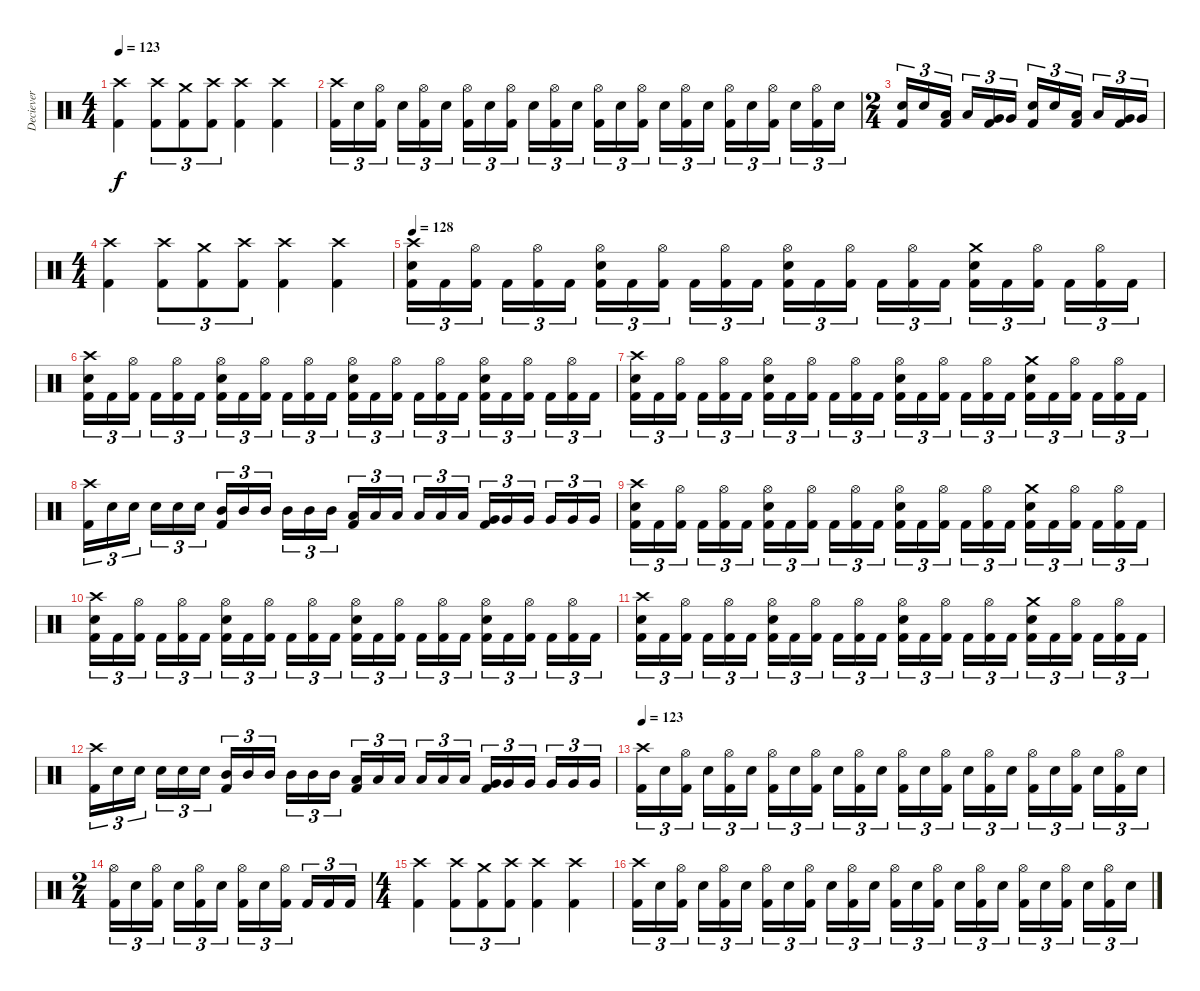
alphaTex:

\track ("Deciever" "Deciever") {instrument percussion}
\staff {score}
\articulation defaults
\ts (4 4)
\tempo 123
\clef neutral
\ks c
("Crash high (hit)" "Kick (hit) 2").4{dy f} ("Crash high (hit)" "Kick (hit) 2").8{tu (3 2)} ("Crash medium (hit)" "Kick (hit) 2").8{tu (3 2)} ("Crash high (hit)" "Kick (hit) 2").8{tu (3 2)} ("Crash high (hit)" "Kick (hit) 2").4 ("Crash high (hit)" "Kick (hit) 2").4 |
("Crash high (hit)" "Kick (hit) 2").16{tu (3 2)} "Electric Snare (hit)".16{tu (3 2)} ("Hi-Hat (open)" "Kick (hit) 2").16{tu (3 2) beam splitsecondary} "Electric Snare (hit)".16{tu (3 2)} ("Hi-Hat (open)" "Kick (hit) 2").16{tu (3 2)} "Electric Snare (hit)".16{tu (3 2)} ("Hi-Hat (open)" "Kick (hit) 2").16{tu (3 2)} "Electric Snare (hit)".16{tu (3 2)} ("Hi-Hat (open)" "Kick (hit) 2").16{tu (3 2) beam splitsecondary} "Electric Snare (hit)".16{tu (3 2)} ("Hi-Hat (open)" "Kick (hit) 2").16{tu (3 2)} "Electric Snare (hit)".16{tu (3 2)} ("Hi-Hat (open)" "Kick (hit) 2").16{tu (3 2)} "Electric Snare (hit)".16{tu (3 2)} ("Hi-Hat (open)" "Kick (hit) 2").16{tu (3 2) beam splitsecondary} "Electric Snare (hit)".16{tu (3 2)} ("Hi-Hat (open)" "Kick (hit) 2").16{tu (3 2)} "Electric Snare (hit)".16{tu (3 2)} ("Hi-Hat (open)" "Kick (hit) 2").16{tu (3 2)} "Electric Snare (hit)".16{tu (3 2)} ("Hi-Hat (open)" "Kick (hit) 2").16{tu (3 2) beam splitsecondary} "Electric Snare (hit)".16{tu (3 2)} ("Hi-Hat (open)" "Kick (hit) 2").16{tu (3 2)} "Electric Snare (hit)".16{tu (3 2)} |
\ts (2 4)
("Electric Snare (hit)" "Kick (hit) 2").16{tu (3 2)} "Electric Snare (hit)".16{tu (3 2)} ("Low Tom (hit)" "Kick (hit) 2").16{tu (3 2) beam splitsecondary} "Low Tom (hit)".16{tu (3 2)} ("Very Low Tom (hit)" "Kick (hit) 2").16{tu (3 2)} "Very Low Tom (hit)".16{tu (3 2)} ("Electric Snare (hit)" "Kick (hit) 2").16{tu (3 2)} "Electric Snare (hit)".16{tu (3 2)} ("Low Tom (hit)" "Kick (hit) 2").16{tu (3 2) beam splitsecondary} "Low Tom (hit)".16{tu (3 2)} ("Very Low Tom (hit)" "Kick (hit) 2").16{tu (3 2)} "Very Low Tom (hit)".16{tu (3 2)} |
\ts (4 4)
("Crash high (hit)" "Kick (hit) 2").4 ("Crash high (hit)" "Kick (hit) 2").8{tu (3 2)} ("Crash medium (hit)" "Kick (hit) 2").8{tu (3 2)} ("Crash high (hit)" "Kick (hit) 2").8{tu (3 2)} ("Crash high (hit)" "Kick (hit) 2").4 ("Crash high (hit)" "Kick (hit) 2").4 |
\tempo 128
("Crash high (hit)" "Electric Snare (hit)" "Kick (hit) 2").16{tu (3 2)} "Kick (hit) 2".16{tu (3 2)} ("Hi-Hat (open)" "Kick (hit) 2").16{tu (3 2) beam splitsecondary} "Kick (hit) 2".16{tu (3 2)} ("Hi-Hat (open)" "Kick (hit) 2").16{tu (3 2)} "Kick (hit) 2".16{tu (3 2)} ("Hi-Hat (open)" "Electric Snare (hit)" "Kick (hit) 2").16{tu (3 2)} "Kick (hit) 2".16{tu (3 2)} ("Hi-Hat (open)" "Kick (hit) 2").16{tu (3 2) beam splitsecondary} "Kick (hit) 2".16{tu (3 2)} ("Hi-Hat (open)" "Kick (hit) 2").16{tu (3 2)} "Kick (hit) 2".16{tu (3 2)} ("Hi-Hat (open)" "Electric Snare (hit)" "Kick (hit) 2").16{tu (3 2)} "Kick (hit) 2".16{tu (3 2)} ("Hi-Hat (open)" "Kick (hit) 2").16{tu (3 2) beam splitsecondary} "Kick (hit) 2".16{tu (3 2)} ("Hi-Hat (open)" "Kick (hit) 2").16{tu (3 2)} "Kick (hit) 2".16{tu (3 2)} ("Crash medium (hit)" "Electric Snare (hit)" "Kick (hit) 2").16{tu (3 2)} "Kick (hit) 2".16{tu (3 2)} ("Hi-Hat (open)" "Kick (hit) 2").16{tu (3 2) beam splitsecondary} "Kick (hit) 2".16{tu (3 2)} ("Hi-Hat (open)" "Kick (hit) 2").16{tu (3 2)} "Kick (hit) 2".16{tu (3 2)} |
("Crash high (hit)" "Electric Snare (hit)" "Kick (hit) 2").16{tu (3 2)} "Kick (hit) 2".16{tu (3 2)} ("Hi-Hat (open)" "Kick (hit) 2").16{tu (3 2) beam splitsecondary} "Kick (hit) 2".16{tu (3 2)} ("Hi-Hat (open)" "Kick (hit) 2").16{tu (3 2)} "Kick (hit) 2".16{tu (3 2)} ("Hi-Hat (open)" "Electric Snare (hit)" "Kick (hit) 2").16{tu (3 2)} "Kick (hit) 2".16{tu (3 2)} ("Hi-Hat (open)" "Kick (hit) 2").16{tu (3 2) beam splitsecondary} "Kick (hit) 2".16{tu (3 2)} ("Hi-Hat (open)" "Kick (hit) 2").16{tu (3 2)} "Kick (hit) 2".16{tu (3 2)} ("Hi-Hat (open)" "Electric Snare (hit)" "Kick (hit) 2").16{tu (3 2)} "Kick (hit) 2".16{tu (3 2)} ("Hi-Hat (open)" "Kick (hit) 2").16{tu (3 2) beam splitsecondary} "Kick (hit) 2".16{tu (3 2)} ("Hi-Hat (open)" "Kick (hit) 2").16{tu (3 2)} "Kick (hit) 2".16{tu (3 2)} ("Hi-Hat (open)" "Electric Snare (hit)" "Kick (hit) 2").16{tu (3 2)} "Kick (hit) 2".16{tu (3 2)} ("Hi-Hat (open)" "Kick (hit) 2").16{tu (3 2) beam splitsecondary} "Kick (hit) 2".16{tu (3 2)} ("Hi-Hat (open)" "Kick (hit) 2").16{tu (3 2)} "Kick (hit) 2".16{tu (3 2)} |
("Crash high (hit)" "Electric Snare (hit)" "Kick (hit) 2").16{tu (3 2)} "Kick (hit) 2".16{tu (3 2)} ("Hi-Hat (open)" "Kick (hit) 2").16{tu (3 2) beam splitsecondary} "Kick (hit) 2".16{tu (3 2)} ("Hi-Hat (open)" "Kick (hit) 2").16{tu (3 2)} "Kick (hit) 2".16{tu (3 2)} ("Hi-Hat (open)" "Electric Snare (hit)" "Kick (hit) 2").16{tu (3 2)} "Kick (hit) 2".16{tu (3 2)} ("Hi-Hat (open)" "Kick (hit) 2").16{tu (3 2) beam splitsecondary} "Kick (hit) 2".16{tu (3 2)} ("Hi-Hat (open)" "Kick (hit) 2").16{tu (3 2)} "Kick (hit) 2".16{tu (3 2)} ("Hi-Hat (open)" "Electric Snare (hit)" "Kick (hit) 2").16{tu (3 2)} "Kick (hit) 2".16{tu (3 2)} ("Hi-Hat (open)" "Kick (hit) 2").16{tu (3 2) beam splitsecondary} "Kick (hit) 2".16{tu (3 2)} ("Hi-Hat (open)" "Kick (hit) 2").16{tu (3 2)} "Kick (hit) 2".16{tu (3 2)} ("Crash medium (hit)" "Electric Snare (hit)" "Kick (hit) 2").16{tu (3 2)} "Kick (hit) 2".16{tu (3 2)} ("Hi-Hat (open)" "Kick (hit) 2").16{tu (3 2) beam splitsecondary} "Kick (hit) 2".16{tu (3 2)} ("Hi-Hat (open)" "Kick (hit) 2").16{tu (3 2)} "Kick (hit) 2".16{tu (3 2)} |
("Crash high (hit)" "Kick (hit) 2").16{tu (3 2)} "Electric Snare (hit)".16{tu (3 2)} "Electric Snare (hit)".16{tu (3 2) beam splitsecondary} "Electric Snare (hit)".16{tu (3 2)} "Electric Snare (hit)".16{tu (3 2)} "Electric Snare (hit)".16{tu (3 2)} ("Mid Tom (hit)" "Kick (hit) 2").16{tu (3 2)} "Mid Tom (hit)".16{tu (3 2)} "Mid Tom (hit)".16{tu (3 2) beam splitsecondary} "Mid Tom (hit)".16{tu (3 2)} "Mid Tom (hit)".16{tu (3 2)} "Mid Tom (hit)".16{tu (3 2)} ("Low Tom (hit)" "Kick (hit) 2").16{tu (3 2)} "Low Tom (hit)".16{tu (3 2)} "Low Tom (hit)".16{tu (3 2) beam splitsecondary} "Low Tom (hit)".16{tu (3 2)} "Low Tom (hit)".16{tu (3 2)} "Low Tom (hit)".16{tu (3 2)} ("Very Low Tom (hit)" "Kick (hit) 2").16{tu (3 2)} "Very Low Tom (hit)".16{tu (3 2)} "Very Low Tom (hit)".16{tu (3 2) beam splitsecondary} "Very Low Tom (hit)".16{tu (3 2)} "Very Low Tom (hit)".16{tu (3 2)} "Very Low Tom (hit)".16{tu (3 2)} |
("Crash high (hit)" "Electric Snare (hit)" "Kick (hit) 2").16{tu (3 2)} "Kick (hit) 2".16{tu (3 2)} ("Hi-Hat (open)" "Kick (hit) 2").16{tu (3 2) beam splitsecondary} "Kick (hit) 2".16{tu (3 2)} ("Hi-Hat (open)" "Kick (hit) 2").16{tu (3 2)} "Kick (hit) 2".16{tu (3 2)} ("Hi-Hat (open)" "Electric Snare (hit)" "Kick (hit) 2").16{tu (3 2)} "Kick (hit) 2".16{tu (3 2)} ("Hi-Hat (open)" "Kick (hit) 2").16{tu (3 2) beam splitsecondary} "Kick (hit) 2".16{tu (3 2)} ("Hi-Hat (open)" "Kick (hit) 2").16{tu (3 2)} "Kick (hit) 2".16{tu (3 2)} ("Hi-Hat (open)" "Electric Snare (hit)" "Kick (hit) 2").16{tu (3 2)} "Kick (hit) 2".16{tu (3 2)} ("Hi-Hat (open)" "Kick (hit) 2").16{tu (3 2) beam splitsecondary} "Kick (hit) 2".16{tu (3 2)} ("Hi-Hat (open)" "Kick (hit) 2").16{tu (3 2)} "Kick (hit) 2".16{tu (3 2)} ("Crash medium (hit)" "Electric Snare (hit)" "Kick (hit) 2").16{tu (3 2)} "Kick (hit) 2".16{tu (3 2)} ("Hi-Hat (open)" "Kick (hit) 2").16{tu (3 2) beam splitsecondary} "Kick (hit) 2".16{tu (3 2)} ("Hi-Hat (open)" "Kick (hit) 2").16{tu (3 2)} "Kick (hit) 2".16{tu (3 2)} |
("Crash high (hit)" "Electric Snare (hit)" "Kick (hit) 2").16{tu (3 2)} "Kick (hit) 2".16{tu (3 2)} ("Hi-Hat (open)" "Kick (hit) 2").16{tu (3 2) beam splitsecondary} "Kick (hit) 2".16{tu (3 2)} ("Hi-Hat (open)" "Kick (hit) 2").16{tu (3 2)} "Kick (hit) 2".16{tu (3 2)} ("Hi-Hat (open)" "Electric Snare (hit)" "Kick (hit) 2").16{tu (3 2)} "Kick (hit) 2".16{tu (3 2)} ("Hi-Hat (open)" "Kick (hit) 2").16{tu (3 2) beam splitsecondary} "Kick (hit) 2".16{tu (3 2)} ("Hi-Hat (open)" "Kick (hit) 2").16{tu (3 2)} "Kick (hit) 2".16{tu (3 2)} ("Hi-Hat (open)" "Electric Snare (hit)" "Kick (hit) 2").16{tu (3 2)} "Kick (hit) 2".16{tu (3 2)} ("Hi-Hat (open)" "Kick (hit) 2").16{tu (3 2) beam splitsecondary} "Kick (hit) 2".16{tu (3 2)} ("Hi-Hat (open)" "Kick (hit) 2").16{tu (3 2)} "Kick (hit) 2".16{tu (3 2)} ("Hi-Hat (open)" "Electric Snare (hit)" "Kick (hit) 2").16{tu (3 2)} "Kick (hit) 2".16{tu (3 2)} ("Hi-Hat (open)" "Kick (hit) 2").16{tu (3 2) beam splitsecondary} "Kick (hit) 2".16{tu (3 2)} ("Hi-Hat (open)" "Kick (hit) 2").16{tu (3 2)} "Kick (hit) 2".16{tu (3 2)} |
("Crash high (hit)" "Electric Snare (hit)" "Kick (hit) 2").16{tu (3 2)} "Kick (hit) 2".16{tu (3 2)} ("Hi-Hat (open)" "Kick (hit) 2").16{tu (3 2) beam splitsecondary} "Kick (hit) 2".16{tu (3 2)} ("Hi-Hat (open)" "Kick (hit) 2").16{tu (3 2)} "Kick (hit) 2".16{tu (3 2)} ("Hi-Hat (open)" "Electric Snare (hit)" "Kick (hit) 2").16{tu (3 2)} "Kick (hit) 2".16{tu (3 2)} ("Hi-Hat (open)" "Kick (hit) 2").16{tu (3 2) beam splitsecondary} "Kick (hit) 2".16{tu (3 2)} ("Hi-Hat (open)" "Kick (hit) 2").16{tu (3 2)} "Kick (hit) 2".16{tu (3 2)} ("Hi-Hat (open)" "Electric Snare (hit)" "Kick (hit) 2").16{tu (3 2)} "Kick (hit) 2".16{tu (3 2)} ("Hi-Hat (open)" "Kick (hit) 2").16{tu (3 2) beam splitsecondary} "Kick (hit) 2".16{tu (3 2)} ("Hi-Hat (open)" "Kick (hit) 2").16{tu (3 2)} "Kick (hit) 2".16{tu (3 2)} ("Crash medium (hit)" "Electric Snare (hit)" "Kick (hit) 2").16{tu (3 2)} "Kick (hit) 2".16{tu (3 2)} ("Hi-Hat (open)" "Kick (hit) 2").16{tu (3 2) beam splitsecondary} "Kick (hit) 2".16{tu (3 2)} ("Hi-Hat (open)" "Kick (hit) 2").16{tu (3 2)} "Kick (hit) 2".16{tu (3 2)} |
("Crash high (hit)" "Kick (hit) 2").16{tu (3 2)} "Electric Snare (hit)".16{tu (3 2)} "Electric Snare (hit)".16{tu (3 2) beam splitsecondary} "Electric Snare (hit)".16{tu (3 2)} "Electric Snare (hit)".16{tu (3 2)} "Electric Snare (hit)".16{tu (3 2)} ("Mid Tom (hit)" "Kick (hit) 2").16{tu (3 2)} "Mid Tom (hit)".16{tu (3 2)} "Mid Tom (hit)".16{tu (3 2) beam splitsecondary} "Mid Tom (hit)".16{tu (3 2)} "Mid Tom (hit)".16{tu (3 2)} "Mid Tom (hit)".16{tu (3 2)} ("Low Tom (hit)" "Kick (hit) 2").16{tu (3 2)} "Low Tom (hit)".16{tu (3 2)} "Low Tom (hit)".16{tu (3 2) beam splitsecondary} "Low Tom (hit)".16{tu (3 2)} "Low Tom (hit)".16{tu (3 2)} "Low Tom (hit)".16{tu (3 2)} ("Very Low Tom (hit)" "Kick (hit) 2").16{tu (3 2)} "Very Low Tom (hit)".16{tu (3 2)} "Very Low Tom (hit)".16{tu (3 2) beam splitsecondary} "Very Low Tom (hit)".16{tu (3 2)} "Very Low Tom (hit)".16{tu (3 2)} "Very Low Tom (hit)".16{tu (3 2)} |
\tempo 123
("Crash high (hit)" "Kick (hit) 2").16{tu (3 2)} "Electric Snare (hit)".16{tu (3 2)} ("Hi-Hat (open)" "Kick (hit) 2").16{tu (3 2) beam splitsecondary} "Electric Snare (hit)".16{tu (3 2)} ("Hi-Hat (open)" "Kick (hit) 2").16{tu (3 2)} "Electric Snare (hit)".16{tu (3 2)} ("Hi-Hat (open)" "Kick (hit) 2").16{tu (3 2)} "Electric Snare (hit)".16{tu (3 2)} ("Hi-Hat (open)" "Kick (hit) 2").16{tu (3 2) beam splitsecondary} "Electric Snare (hit)".16{tu (3 2)} ("Hi-Hat (open)" "Kick (hit) 2").16{tu (3 2)} "Electric Snare (hit)".16{tu (3 2)} ("Hi-Hat (open)" "Kick (hit) 2").16{tu (3 2)} "Electric Snare (hit)".16{tu (3 2)} ("Hi-Hat (open)" "Kick (hit) 2").16{tu (3 2) beam splitsecondary} "Electric Snare (hit)".16{tu (3 2)} ("Hi-Hat (open)" "Kick (hit) 2").16{tu (3 2)} "Electric Snare (hit)".16{tu (3 2)} ("Hi-Hat (open)" "Kick (hit) 2").16{tu (3 2)} "Electric Snare (hit)".16{tu (3 2)} ("Hi-Hat (open)" "Kick (hit) 2").16{tu (3 2) beam splitsecondary} "Electric Snare (hit)".16{tu (3 2)} ("Hi-Hat (open)" "Kick (hit) 2").16{tu (3 2)} "Electric Snare (hit)".16{tu (3 2)} |
\ts (2 4)
("Hi-Hat (open)" "Kick (hit) 2").16{tu (3 2)} "Electric Snare (hit)".16{tu (3 2)} ("Hi-Hat (open)" "Kick (hit) 2").16{tu (3 2) beam splitsecondary} "Electric Snare (hit)".16{tu (3 2)} ("Hi-Hat (open)" "Kick (hit) 2").16{tu (3 2)} "Electric Snare (hit)".16{tu (3 2)} ("Hi-Hat (open)" "Kick (hit) 2").16{tu (3 2)} "Electric Snare (hit)".16{tu (3 2)} ("Hi-Hat (open)" "Kick (hit) 2").16{tu (3 2) beam splitsecondary} "Kick (hit) 2".16{tu (3 2)} "Kick (hit) 2".16{tu (3 2)} "Kick (hit) 2".16{tu (3 2)} |
\ts (4 4)
("Crash high (hit)" "Kick (hit) 2").4 ("Crash high (hit)" "Kick (hit) 2").8{tu (3 2)} ("Crash medium (hit)" "Kick (hit) 2").8{tu (3 2)} ("Crash high (hit)" "Kick (hit) 2").8{tu (3 2)} ("Crash high (hit)" "Kick (hit) 2").4 ("Crash high (hit)" "Kick (hit) 2").4 |
("Crash high (hit)" "Kick (hit) 2").16{tu (3 2)} "Electric Snare (hit)".16{tu (3 2)} ("Hi-Hat (open)" "Kick (hit) 2").16{tu (3 2) beam splitsecondary} "Electric Snare (hit)".16{tu (3 2)} ("Hi-Hat (open)" "Kick (hit) 2").16{tu (3 2)} "Electric Snare (hit)".16{tu (3 2)} ("Hi-Hat (open)" "Kick (hit) 2").16{tu (3 2)} "Electric Snare (hit)".16{tu (3 2)} ("Hi-Hat (open)" "Kick (hit) 2").16{tu (3 2) beam splitsecondary} "Electric Snare (hit)".16{tu (3 2)} ("Hi-Hat (open)" "Kick (hit) 2").16{tu (3 2)} "Electric Snare (hit)".16{tu (3 2)} ("Hi-Hat (open)" "Kick (hit) 2").16{tu (3 2)} "Electric Snare (hit)".16{tu (3 2)} ("Hi-Hat (open)" "Kick (hit) 2").16{tu (3 2) beam splitsecondary} "Electric Snare (hit)".16{tu (3 2)} ("Hi-Hat (open)" "Kick (hit) 2").16{tu (3 2)} "Electric Snare (hit)".16{tu (3 2)} ("Hi-Hat (open)" "Kick (hit) 2").16{tu (3 2)} "Electric Snare (hit)".16{tu (3 2)} ("Hi-Hat (open)" "Kick (hit) 2").16{tu (3 2) beam splitsecondary} "Electric Snare (hit)".16{tu (3 2)} ("Hi-Hat (open)" "Kick (hit) 2").16{tu (3 2)} "Electric Snare (hit)".16{tu (3 2)}
